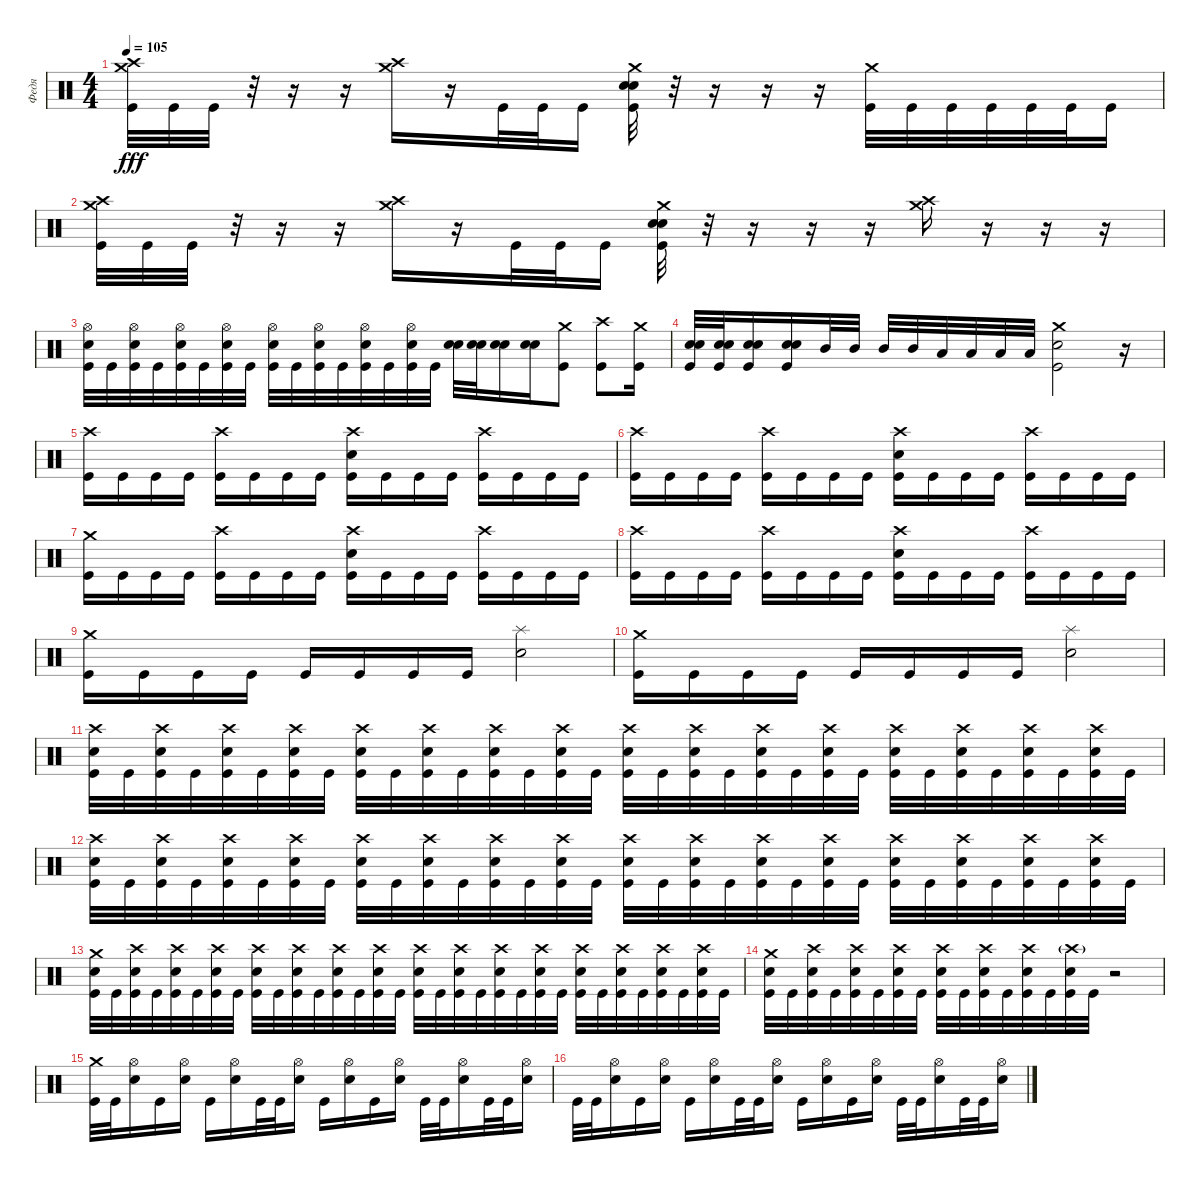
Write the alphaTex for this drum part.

\track ("Федя" "Федя") {instrument percussion}
\staff {score}
\articulation defaults
\ts (4 4)
\tempo 105
\clef neutral
\ks c
("Crash medium (hit)" "Crash high (hit)" "Kick (hit)").32{dy fff} "Kick (hit)".32 "Kick (hit)".32 r.32 r.16 r.16 ("Crash medium (hit)" "Crash high (hit)").16 r.16 "Kick (hit)".32 "Kick (hit)".32 "Kick (hit)".16 ("Crash medium (hit)" "Electric Snare (hit)" "Snare (hit) 2" "Kick (hit)").32 r.32 r.16 r.16 r.16 ("Crash medium (hit)" "Kick (hit)").32 "Kick (hit)".32 "Kick (hit)".32 "Kick (hit)".32 "Kick (hit)".32 "Kick (hit)".32 "Kick (hit)".16 |
("Crash medium (hit)" "Crash high (hit)" "Kick (hit)").32 "Kick (hit)".32 "Kick (hit)".32 r.32 r.16 r.16 ("Crash medium (hit)" "Crash high (hit)").16 r.16 "Kick (hit)".32 "Kick (hit)".32 "Kick (hit)".16 ("Crash medium (hit)" "Electric Snare (hit)" "Snare (hit) 2" "Kick (hit)").32 r.32 r.16 r.16 r.16 ("Crash medium (hit)" "Crash high (hit)").16 r.16 r.16 r.16 |
("Hi-Hat (open)" "Snare (hit) 2" "Kick (hit)").32 "Kick (hit)".32 ("Hi-Hat (open)" "Snare (hit) 2" "Kick (hit)").32 "Kick (hit)".32 ("Hi-Hat (open)" "Snare (hit) 2" "Kick (hit)").32 "Kick (hit)".32 ("Hi-Hat (open)" "Snare (hit) 2" "Kick (hit)").32 "Kick (hit)".32 ("Hi-Hat (open)" "Snare (hit) 2" "Kick (hit)").32 "Kick (hit)".32 ("Hi-Hat (open)" "Snare (hit) 2" "Kick (hit)").32 "Kick (hit)".32 ("Hi-Hat (open)" "Snare (hit) 2" "Kick (hit)").32 "Kick (hit)".32 ("Hi-Hat (open)" "Snare (hit) 2" "Kick (hit)").32 "Kick (hit)".32 ("Electric Snare (hit)" "Snare (hit) 2").32 ("Electric Snare (hit)" "Snare (hit) 2").32 ("Electric Snare (hit)" "Snare (hit) 2").16 ("Electric Snare (hit)" "Snare (hit) 2").16 ("Crash medium (hit)" "Kick (hit)").8 ("Crash high (hit)" "Kick (hit)").8 ("Crash medium (hit)" "Kick (hit)").16 |
("Electric Snare (hit)" "Snare (hit) 2" "Kick (hit)").32 ("Electric Snare (hit)" "Snare (hit) 2" "Kick (hit)").32 ("Electric Snare (hit)" "Snare (hit) 2" "Kick (hit)").16 ("Electric Snare (hit)" "Snare (hit) 2" "Kick (hit)").16 "Mid Tom (hit)".32 "Mid Tom (hit)".32 "Mid Tom (hit)".32 "Mid Tom (hit)".32 "Low Tom (hit)".32 "Low Tom (hit)".32 "Low Tom (hit)".32 "Low Tom (hit)".32 ("Crash medium (hit)" "Snare (hit) 2" "Kick (hit)").2 r.16 |
("Crash high (hit)" "Kick (hit)").16 "Kick (hit)".16 "Kick (hit)".16 "Kick (hit)".16 ("Crash high (hit)" "Kick (hit)").16 "Kick (hit)".16 "Kick (hit)".16 "Kick (hit)".16 ("Crash high (hit)" "Snare (hit) 2" "Kick (hit)").16 "Kick (hit)".16 "Kick (hit)".16 "Kick (hit)".16 ("Crash high (hit)" "Kick (hit)").16 "Kick (hit)".16 "Kick (hit)".16 "Kick (hit)".16 |
("Crash high (hit)" "Kick (hit)").16 "Kick (hit)".16 "Kick (hit)".16 "Kick (hit)".16 ("Crash high (hit)" "Kick (hit)").16 "Kick (hit)".16 "Kick (hit)".16 "Kick (hit)".16 ("Crash high (hit)" "Snare (hit) 2" "Kick (hit)").16 "Kick (hit)".16 "Kick (hit)".16 "Kick (hit)".16 ("Crash high (hit)" "Kick (hit)").16 "Kick (hit)".16 "Kick (hit)".16 "Kick (hit)".16 |
("Crash medium (hit)" "Kick (hit)").16 "Kick (hit)".16 "Kick (hit)".16 "Kick (hit)".16 ("Crash high (hit)" "Kick (hit)").16 "Kick (hit)".16 "Kick (hit)".16 "Kick (hit)".16 ("Crash high (hit)" "Snare (hit) 2" "Kick (hit)").16 "Kick (hit)".16 "Kick (hit)".16 "Kick (hit)".16 ("Crash high (hit)" "Kick (hit)").16 "Kick (hit)".16 "Kick (hit)".16 "Kick (hit)".16 |
("Crash high (hit)" "Kick (hit)").16 "Kick (hit)".16 "Kick (hit)".16 "Kick (hit)".16 ("Crash high (hit)" "Kick (hit)").16 "Kick (hit)".16 "Kick (hit)".16 "Kick (hit)".16 ("Crash high (hit)" "Snare (hit) 2" "Kick (hit)").16 "Kick (hit)".16 "Kick (hit)".16 "Kick (hit)".16 ("Crash high (hit)" "Kick (hit)").16 "Kick (hit)".16 "Kick (hit)".16 "Kick (hit)".16 |
("Crash medium (hit)" "Kick (hit)").16 "Kick (hit)".16 "Kick (hit)".16 "Kick (hit)".16 "Kick (hit)".16 "Kick (hit)".16 "Kick (hit)".16 "Kick (hit)".16 ("Splash (hit)" "Snare (hit) 2").2 |
("Crash medium (hit)" "Kick (hit)").16 "Kick (hit)".16 "Kick (hit)".16 "Kick (hit)".16 "Kick (hit)".16 "Kick (hit)".16 "Kick (hit)".16 "Kick (hit)".16 ("Splash (hit)" "Snare (hit) 2").2 |
("Crash high (hit)" "Snare (hit) 2" "Kick (hit)").32 "Kick (hit)".32 ("Crash high (hit)" "Snare (hit) 2" "Kick (hit)").32 "Kick (hit)".32 ("Crash high (hit)" "Snare (hit) 2" "Kick (hit)").32 "Kick (hit)".32 ("Crash high (hit)" "Snare (hit) 2" "Kick (hit)").32 "Kick (hit)".32 ("Crash high (hit)" "Snare (hit) 2" "Kick (hit)").32 "Kick (hit)".32 ("Crash high (hit)" "Snare (hit) 2" "Kick (hit)").32 "Kick (hit)".32 ("Crash high (hit)" "Snare (hit) 2" "Kick (hit)").32 "Kick (hit)".32 ("Crash high (hit)" "Snare (hit) 2" "Kick (hit)").32 "Kick (hit)".32 ("Crash high (hit)" "Snare (hit) 2" "Kick (hit)").32 "Kick (hit)".32 ("Crash high (hit)" "Snare (hit) 2" "Kick (hit)").32 "Kick (hit)".32 ("Crash high (hit)" "Snare (hit) 2" "Kick (hit)").32 "Kick (hit)".32 ("Crash high (hit)" "Snare (hit) 2" "Kick (hit)").32 "Kick (hit)".32 ("Crash high (hit)" "Snare (hit) 2" "Kick (hit)").32 "Kick (hit)".32 ("Crash high (hit)" "Snare (hit) 2" "Kick (hit)").32 "Kick (hit)".32 ("Crash high (hit)" "Snare (hit) 2" "Kick (hit)").32 "Kick (hit)".32 ("Crash high (hit)" "Snare (hit) 2" "Kick (hit)").32 "Kick (hit)".32 |
("Crash high (hit)" "Snare (hit) 2" "Kick (hit)").32 "Kick (hit)".32 ("Crash high (hit)" "Snare (hit) 2" "Kick (hit)").32 "Kick (hit)".32 ("Crash high (hit)" "Snare (hit) 2" "Kick (hit)").32 "Kick (hit)".32 ("Crash high (hit)" "Snare (hit) 2" "Kick (hit)").32 "Kick (hit)".32 ("Crash high (hit)" "Snare (hit) 2" "Kick (hit)").32 "Kick (hit)".32 ("Crash high (hit)" "Snare (hit) 2" "Kick (hit)").32 "Kick (hit)".32 ("Crash high (hit)" "Snare (hit) 2" "Kick (hit)").32 "Kick (hit)".32 ("Crash high (hit)" "Snare (hit) 2" "Kick (hit)").32 "Kick (hit)".32 ("Crash high (hit)" "Snare (hit) 2" "Kick (hit)").32 "Kick (hit)".32 ("Crash high (hit)" "Snare (hit) 2" "Kick (hit)").32 "Kick (hit)".32 ("Crash high (hit)" "Snare (hit) 2" "Kick (hit)").32 "Kick (hit)".32 ("Crash high (hit)" "Snare (hit) 2" "Kick (hit)").32 "Kick (hit)".32 ("Crash high (hit)" "Snare (hit) 2" "Kick (hit)").32 "Kick (hit)".32 ("Crash high (hit)" "Snare (hit) 2" "Kick (hit)").32 "Kick (hit)".32 ("Crash high (hit)" "Snare (hit) 2" "Kick (hit)").32 "Kick (hit)".32 ("Crash high (hit)" "Snare (hit) 2" "Kick (hit)").32 "Kick (hit)".32 |
("Crash medium (hit)" "Snare (hit) 2" "Kick (hit)").32 "Kick (hit)".32 ("Crash high (hit)" "Snare (hit) 2" "Kick (hit)").32 "Kick (hit)".32 ("Crash high (hit)" "Snare (hit) 2" "Kick (hit)").32 "Kick (hit)".32 ("Crash high (hit)" "Snare (hit) 2" "Kick (hit)").32 "Kick (hit)".32 ("Crash high (hit)" "Snare (hit) 2" "Kick (hit)").32 "Kick (hit)".32 ("Crash high (hit)" "Snare (hit) 2" "Kick (hit)").32 "Kick (hit)".32 ("Crash high (hit)" "Snare (hit) 2" "Kick (hit)").32 "Kick (hit)".32 ("Crash high (hit)" "Snare (hit) 2" "Kick (hit)").32 "Kick (hit)".32 ("Crash high (hit)" "Snare (hit) 2" "Kick (hit)").32 "Kick (hit)".32 ("Crash high (hit)" "Snare (hit) 2" "Kick (hit)").32 "Kick (hit)".32 ("Crash high (hit)" "Snare (hit) 2" "Kick (hit)").32 "Kick (hit)".32 ("Crash high (hit)" "Snare (hit) 2" "Kick (hit)").32 "Kick (hit)".32 ("Crash high (hit)" "Snare (hit) 2" "Kick (hit)").32 "Kick (hit)".32 ("Crash high (hit)" "Snare (hit) 2" "Kick (hit)").32 "Kick (hit)".32 ("Crash high (hit)" "Snare (hit) 2" "Kick (hit)").32 "Kick (hit)".32 ("Crash high (hit)" "Snare (hit) 2" "Kick (hit)").32 "Kick (hit)".32 |
("Crash medium (hit)" "Snare (hit) 2" "Kick (hit)").32 "Kick (hit)".32 ("Crash high (hit)" "Snare (hit) 2" "Kick (hit)").32 "Kick (hit)".32 ("Crash high (hit)" "Snare (hit) 2" "Kick (hit)").32 "Kick (hit)".32 ("Crash high (hit)" "Snare (hit) 2" "Kick (hit)").32 "Kick (hit)".32 ("Crash high (hit)" "Snare (hit) 2" "Kick (hit)").32 "Kick (hit)".32 ("Crash high (hit)" "Snare (hit) 2" "Kick (hit)").32 "Kick (hit)".32 ("Crash high (hit)" "Snare (hit) 2" "Kick (hit)").32 "Kick (hit)".32 ("Crash high (hit)"{g} "Snare (hit) 2" "Kick (hit)").32 "Kick (hit)".32 r.2 |
("Crash medium (hit)" "Kick (hit)").32 "Kick (hit)".32 ("Hi-Hat (open)" "Snare (hit) 2").16 "Kick (hit)".16 ("Hi-Hat (open)" "Snare (hit) 2").16 "Kick (hit)".16 ("Hi-Hat (open)" "Snare (hit) 2").16 "Kick (hit)".32 "Kick (hit)".32 ("Hi-Hat (open)" "Snare (hit) 2").16 "Kick (hit)".16 ("Hi-Hat (open)" "Snare (hit) 2").16 "Kick (hit)".16 ("Hi-Hat (open)" "Snare (hit) 2").16 "Kick (hit)".32 "Kick (hit)".32 ("Hi-Hat (open)" "Snare (hit) 2").16 "Kick (hit)".32 "Kick (hit)".32 ("Hi-Hat (open)" "Snare (hit) 2").16 |
"Kick (hit)".32 "Kick (hit)".32 ("Hi-Hat (open)" "Snare (hit) 2").16 "Kick (hit)".16 ("Hi-Hat (open)" "Snare (hit) 2").16 "Kick (hit)".16 ("Hi-Hat (open)" "Snare (hit) 2").16 "Kick (hit)".32 "Kick (hit)".32 ("Hi-Hat (open)" "Snare (hit) 2").16 "Kick (hit)".16 ("Hi-Hat (open)" "Snare (hit) 2").16 "Kick (hit)".16 ("Hi-Hat (open)" "Snare (hit) 2").16 "Kick (hit)".32 "Kick (hit)".32 ("Hi-Hat (open)" "Snare (hit) 2").16 "Kick (hit)".32 "Kick (hit)".32 ("Hi-Hat (open)" "Snare (hit) 2").16
